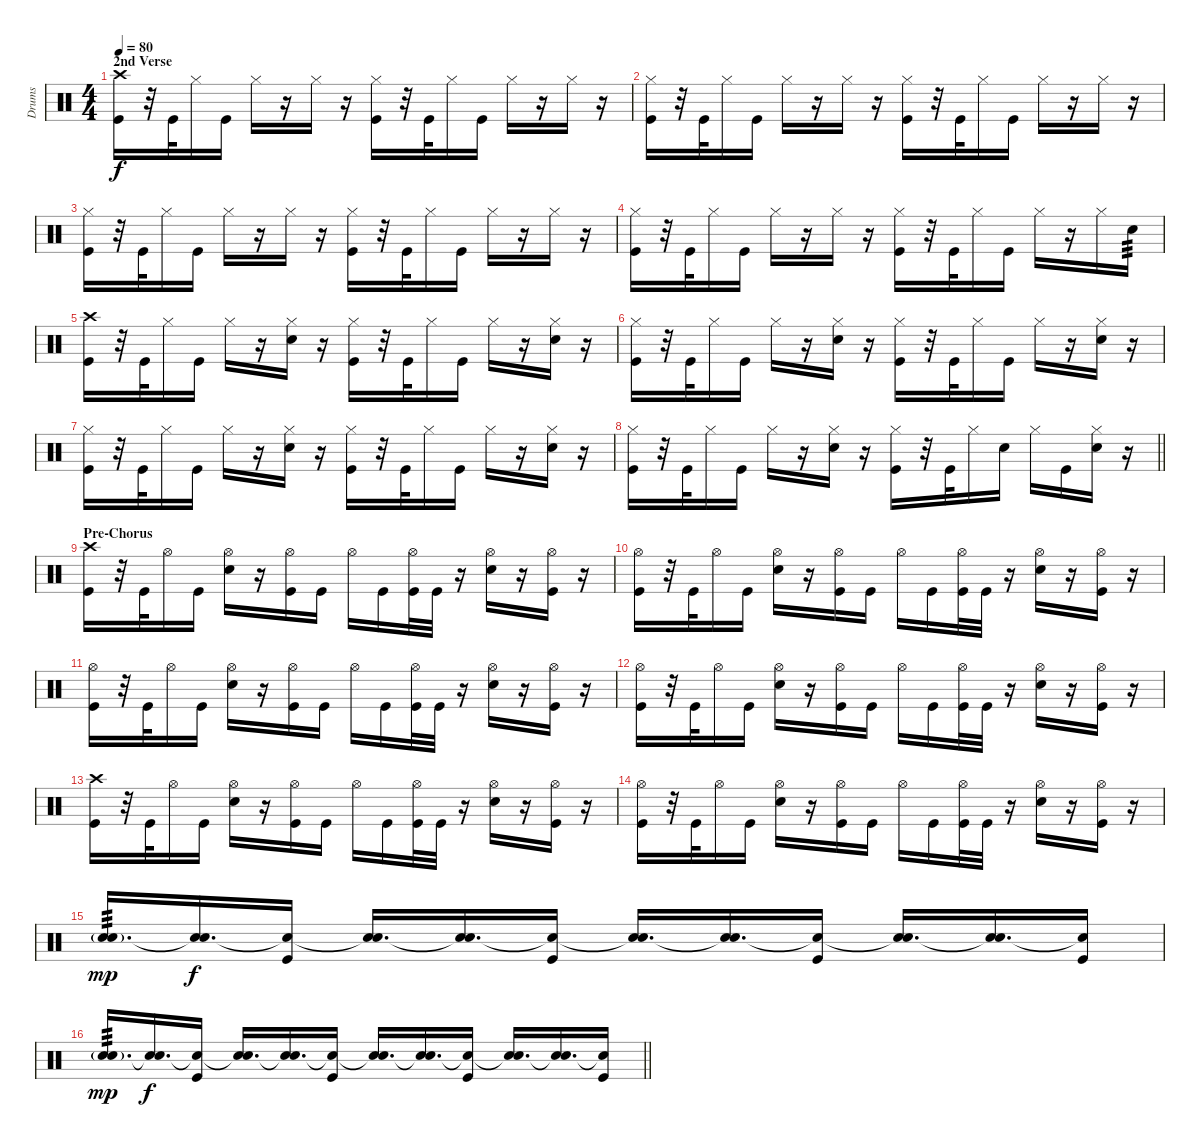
\track ("Drums" "Drums") {instrument percussion}
\staff {score}
\articulation defaults
\ts (4 4)
\section ("" "2nd Verse")
\tempo 80
\clef neutral
\ks c
("Crash high (hit)" "Kick (hit)").16{dy f} r.32 "Kick (hit)".32 "Hi-Hat (closed)".16 "Kick (hit)".16 "Hi-Hat (closed)".16 r.16 "Hi-Hat (closed)".16 r.16 ("Hi-Hat (closed)" "Kick (hit)").16 r.32 "Kick (hit)".32 "Hi-Hat (closed)".16 "Kick (hit)".16 "Hi-Hat (closed)".16 r.16 "Hi-Hat (closed)".16 r.16 |
("Hi-Hat (closed)" "Kick (hit)").16 r.32 "Kick (hit)".32 "Hi-Hat (closed)".16 "Kick (hit)".16 "Hi-Hat (closed)".16 r.16 "Hi-Hat (closed)".16 r.16 ("Hi-Hat (closed)" "Kick (hit)").16 r.32 "Kick (hit)".32 "Hi-Hat (closed)".16 "Kick (hit)".16 "Hi-Hat (closed)".16 r.16 "Hi-Hat (closed)".16 r.16 |
("Hi-Hat (closed)" "Kick (hit)").16 r.32 "Kick (hit)".32 "Hi-Hat (closed)".16 "Kick (hit)".16 "Hi-Hat (closed)".16 r.16 "Hi-Hat (closed)".16 r.16 ("Hi-Hat (closed)" "Kick (hit)").16 r.32 "Kick (hit)".32 "Hi-Hat (closed)".16 "Kick (hit)".16 "Hi-Hat (closed)".16 r.16 "Hi-Hat (closed)".16 r.16 |
("Hi-Hat (closed)" "Kick (hit)").16 r.32 "Kick (hit)".32 "Hi-Hat (closed)".16 "Kick (hit)".16 "Hi-Hat (closed)".16 r.16 "Hi-Hat (closed)".16 r.16 ("Hi-Hat (closed)" "Kick (hit)").16 r.32 "Kick (hit)".32 "Hi-Hat (closed)".16 "Kick (hit)".16 "Hi-Hat (closed)".16 r.16 "Hi-Hat (closed)".16 "Electric Snare (hit)".16{tp 3} |
("Crash high (hit)" "Kick (hit)").16 r.32 "Kick (hit)".32 "Hi-Hat (closed)".16 "Kick (hit)".16 "Hi-Hat (closed)".16 r.16 ("Hi-Hat (closed)" "Electric Snare (hit)").16 r.16 ("Hi-Hat (closed)" "Kick (hit)").16 r.32 "Kick (hit)".32 "Hi-Hat (closed)".16 "Kick (hit)".16 "Hi-Hat (closed)".16 r.16 ("Hi-Hat (closed)" "Electric Snare (hit)").16 r.16 |
("Hi-Hat (closed)" "Kick (hit)").16 r.32 "Kick (hit)".32 "Hi-Hat (closed)".16 "Kick (hit)".16 "Hi-Hat (closed)".16 r.16 ("Hi-Hat (closed)" "Electric Snare (hit)").16 r.16 ("Hi-Hat (closed)" "Kick (hit)").16 r.32 "Kick (hit)".32 "Hi-Hat (closed)".16 "Kick (hit)".16 "Hi-Hat (closed)".16 r.16 ("Hi-Hat (closed)" "Electric Snare (hit)").16 r.16 |
("Hi-Hat (closed)" "Kick (hit)").16 r.32 "Kick (hit)".32 "Hi-Hat (closed)".16 "Kick (hit)".16 "Hi-Hat (closed)".16 r.16 ("Hi-Hat (closed)" "Electric Snare (hit)").16 r.16 ("Hi-Hat (closed)" "Kick (hit)").16 r.32 "Kick (hit)".32 "Hi-Hat (closed)".16 "Kick (hit)".16 "Hi-Hat (closed)".16 r.16 ("Hi-Hat (closed)" "Electric Snare (hit)").16 r.16 |
\barLineRight lightlight
("Hi-Hat (closed)" "Kick (hit)").16 r.32 "Kick (hit)".32 "Hi-Hat (closed)".16 "Kick (hit)".16 "Hi-Hat (closed)".16 r.16 ("Hi-Hat (closed)" "Electric Snare (hit)").16 r.16 ("Hi-Hat (closed)" "Kick (hit)").16 r.32 "Kick (hit)".32 "Hi-Hat (closed)".16 "Electric Snare (hit)".16 "Hi-Hat (closed)".16 "Kick (hit)".16 ("Hi-Hat (closed)" "Electric Snare (hit)").16 r.16 |
\section ("" "Pre-Chorus")
("Crash high (hit)" "Kick (hit)").16 r.32 "Kick (hit)".32 "Hi-Hat (open)".16 "Kick (hit)".16 ("Hi-Hat (open)" "Electric Snare (hit)").16 r.16 ("Hi-Hat (open)" "Kick (hit)").16 "Kick (hit)".16 "Hi-Hat (open)".16 "Kick (hit)".16 ("Hi-Hat (open)" "Kick (hit)").32 "Kick (hit)".32 r.16 ("Hi-Hat (open)" "Electric Snare (hit)").16 r.16 ("Hi-Hat (open)" "Kick (hit)").16 r.16 |
("Hi-Hat (open)" "Kick (hit)").16 r.32 "Kick (hit)".32 "Hi-Hat (open)".16 "Kick (hit)".16 ("Hi-Hat (open)" "Electric Snare (hit)").16 r.16 ("Hi-Hat (open)" "Kick (hit)").16 "Kick (hit)".16 "Hi-Hat (open)".16 "Kick (hit)".16 ("Hi-Hat (open)" "Kick (hit)").32 "Kick (hit)".32 r.16 ("Hi-Hat (open)" "Electric Snare (hit)").16 r.16 ("Hi-Hat (open)" "Kick (hit)").16 r.16 |
("Hi-Hat (open)" "Kick (hit)").16 r.32 "Kick (hit)".32 "Hi-Hat (open)".16 "Kick (hit)".16 ("Hi-Hat (open)" "Electric Snare (hit)").16 r.16 ("Hi-Hat (open)" "Kick (hit)").16 "Kick (hit)".16 "Hi-Hat (open)".16 "Kick (hit)".16 ("Hi-Hat (open)" "Kick (hit)").32 "Kick (hit)".32 r.16 ("Hi-Hat (open)" "Electric Snare (hit)").16 r.16 ("Hi-Hat (open)" "Kick (hit)").16 r.16 |
("Hi-Hat (open)" "Kick (hit)").16 r.32 "Kick (hit)".32 "Hi-Hat (open)".16 "Kick (hit)".16 ("Hi-Hat (open)" "Electric Snare (hit)").16 r.16 ("Hi-Hat (open)" "Kick (hit)").16 "Kick (hit)".16 "Hi-Hat (open)".16 "Kick (hit)".16 ("Hi-Hat (open)" "Kick (hit)").32 "Kick (hit)".32 r.16 ("Hi-Hat (open)" "Electric Snare (hit)").16 r.16 ("Hi-Hat (open)" "Kick (hit)").16 r.16 |
("Crash high (hit)" "Kick (hit)").16 r.32 "Kick (hit)".32 "Hi-Hat (open)".16 "Kick (hit)".16 ("Hi-Hat (open)" "Electric Snare (hit)").16 r.16 ("Hi-Hat (open)" "Kick (hit)").16 "Kick (hit)".16 "Hi-Hat (open)".16 "Kick (hit)".16 ("Hi-Hat (open)" "Kick (hit)").32 "Kick (hit)".32 r.16 ("Hi-Hat (open)" "Electric Snare (hit)").16 r.16 ("Hi-Hat (open)" "Kick (hit)").16 r.16 |
("Hi-Hat (open)" "Kick (hit)").16 r.32 "Kick (hit)".32 "Hi-Hat (open)".16 "Kick (hit)".16 ("Hi-Hat (open)" "Electric Snare (hit)").16 r.16 ("Hi-Hat (open)" "Kick (hit)").16 "Kick (hit)".16 "Hi-Hat (open)".16 "Kick (hit)".16 ("Hi-Hat (open)" "Kick (hit)").32 "Kick (hit)".32 r.16 ("Hi-Hat (open)" "Electric Snare (hit)").16 r.16 ("Hi-Hat (open)" "Kick (hit)").16 r.16 |
("Electric Snare (hit)"{g} "Electric Snare (hit)").16{d tp 3 dy mp} ("Electric Snare (hit)"{t} "Electric Snare (hit)").16{d dy f} ("Electric Snare (hit)"{t} "Kick (hit)").16 ("Electric Snare (hit)"{t} "Electric Snare (hit)").16{d} ("Electric Snare (hit)"{t} "Electric Snare (hit)").16{d} ("Electric Snare (hit)"{t} "Kick (hit)").16 ("Electric Snare (hit)"{t} "Electric Snare (hit)").16{d} ("Electric Snare (hit)"{t} "Electric Snare (hit)").16{d} ("Electric Snare (hit)"{t} "Kick (hit)").16 ("Electric Snare (hit)"{t} "Electric Snare (hit)").16{d} ("Snare (hit)"{t} "Electric Snare (hit)").16{d} ("Snare (hit)"{t} "Kick (hit)").16 |
\barLineRight lightlight
("Electric Snare (hit)"{g} "Electric Snare (hit)").16{d tp 3 dy mp} ("Electric Snare (hit)"{t} "Electric Snare (hit)").16{d dy f} ("Electric Snare (hit)"{t} "Kick (hit)").16 ("Electric Snare (hit)"{t} "Electric Snare (hit)").16{d} ("Electric Snare (hit)"{t} "Electric Snare (hit)").16{d} ("Electric Snare (hit)"{t} "Kick (hit)").16 ("Electric Snare (hit)"{t} "Electric Snare (hit)").16{d} ("Electric Snare (hit)"{t} "Electric Snare (hit)").16{d} ("Electric Snare (hit)"{t} "Kick (hit)").16 ("Electric Snare (hit)"{t} "Electric Snare (hit)").16{d} ("Snare (hit)"{t} "Electric Snare (hit)").16{d} ("Snare (hit)"{t} "Kick (hit)").16
